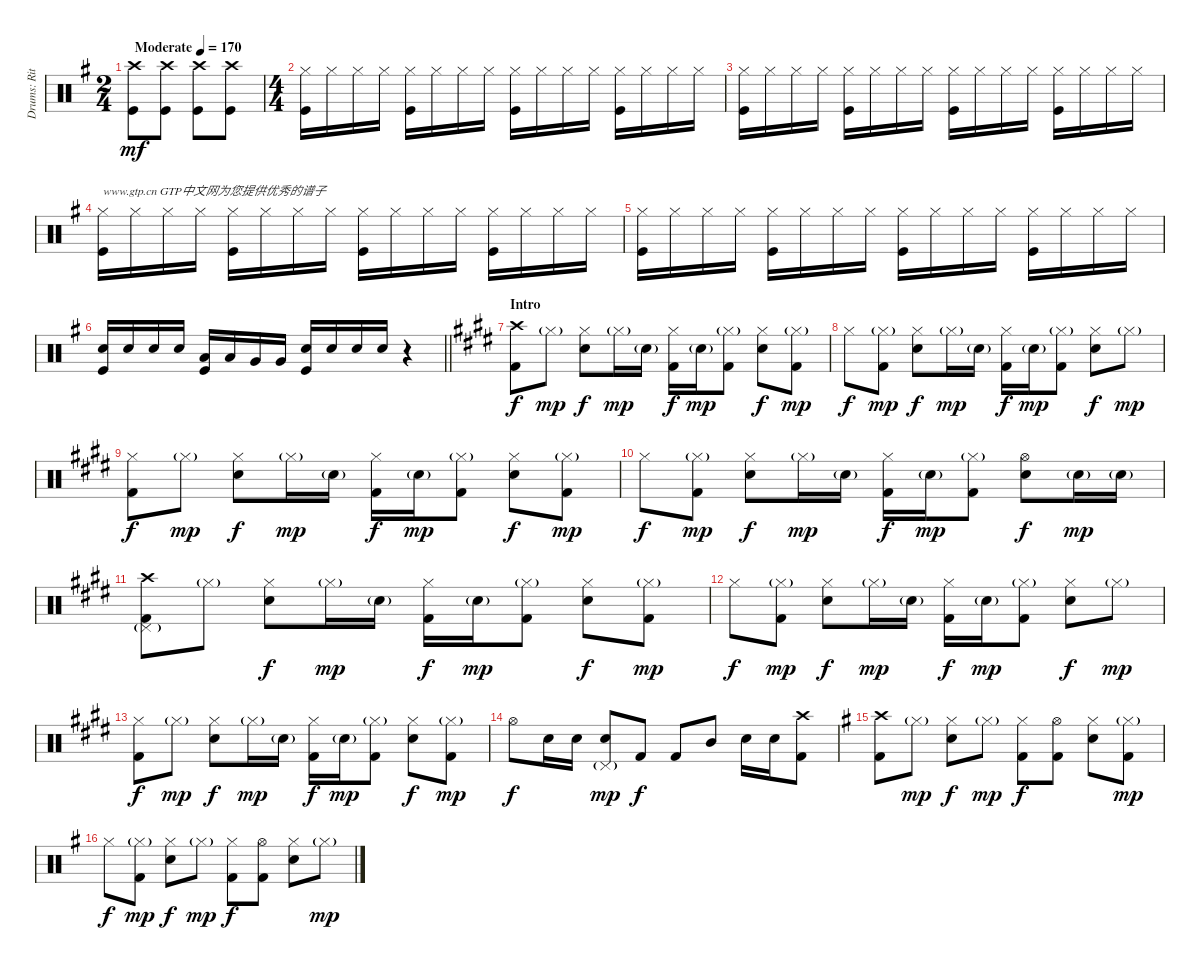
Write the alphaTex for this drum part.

\track ("Drums: Ritsu Tainaka" "Drums: Rit") {instrument percussion}
\staff {score}
\articulation defaults
\ts (2 4)
\tempo (170 "Moderate")
\clef neutral
\ks eminor
("Crash high (hit)" "Kick (hit)").8{dy mf} ("Crash high (hit)" "Kick (hit)").8 ("Crash high (hit)" "Kick (hit)").8 ("Crash high (hit)" "Kick (hit)").8 |
\ts (4 4)
("Hi-Hat (closed)" "Kick (hit)").16 "Hi-Hat (closed)".16 "Hi-Hat (closed)".16 "Hi-Hat (closed)".16 ("Hi-Hat (closed)" "Kick (hit)").16 "Hi-Hat (closed)".16 "Hi-Hat (closed)".16 "Hi-Hat (closed)".16 ("Hi-Hat (closed)" "Kick (hit)").16 "Hi-Hat (closed)".16 "Hi-Hat (closed)".16 "Hi-Hat (closed)".16 ("Hi-Hat (closed)" "Kick (hit)").16 "Hi-Hat (closed)".16 "Hi-Hat (closed)".16 "Hi-Hat (closed)".16 |
("Hi-Hat (closed)" "Kick (hit)").16 "Hi-Hat (closed)".16 "Hi-Hat (closed)".16 "Hi-Hat (closed)".16 ("Hi-Hat (closed)" "Kick (hit)").16 "Hi-Hat (closed)".16 "Hi-Hat (closed)".16 "Hi-Hat (closed)".16 ("Hi-Hat (closed)" "Kick (hit)").16 "Hi-Hat (closed)".16 "Hi-Hat (closed)".16 "Hi-Hat (closed)".16 ("Hi-Hat (closed)" "Kick (hit)").16 "Hi-Hat (closed)".16 "Hi-Hat (closed)".16 "Hi-Hat (closed)".16 |
("Hi-Hat (closed)" "Kick (hit)").16{txt "www.gtp.cn GTP中文网为您提供优秀的谱子"} "Hi-Hat (closed)".16 "Hi-Hat (closed)".16 "Hi-Hat (closed)".16 ("Hi-Hat (closed)" "Kick (hit)").16 "Hi-Hat (closed)".16 "Hi-Hat (closed)".16 "Hi-Hat (closed)".16 ("Hi-Hat (closed)" "Kick (hit)").16 "Hi-Hat (closed)".16 "Hi-Hat (closed)".16 "Hi-Hat (closed)".16 ("Hi-Hat (closed)" "Kick (hit)").16 "Hi-Hat (closed)".16 "Hi-Hat (closed)".16 "Hi-Hat (closed)".16 |
("Hi-Hat (closed)" "Kick (hit)").16 "Hi-Hat (closed)".16 "Hi-Hat (closed)".16 "Hi-Hat (closed)".16 ("Hi-Hat (closed)" "Kick (hit)").16 "Hi-Hat (closed)".16 "Hi-Hat (closed)".16 "Hi-Hat (closed)".16 ("Hi-Hat (closed)" "Kick (hit)").16 "Hi-Hat (closed)".16 "Hi-Hat (closed)".16 "Hi-Hat (closed)".16 ("Hi-Hat (closed)" "Kick (hit)").16 "Hi-Hat (closed)".16 "Hi-Hat (closed)".16 "Hi-Hat (closed)".16 |
\barLineRight lightlight
("Snare (hit) 2" "Kick (hit)").16 "Snare (hit) 2".16 "Snare (hit) 2".16 "Snare (hit) 2".16 ("Low Tom (hit)" "Kick (hit)").16 "Low Tom (hit)".16 "Very Low Tom (hit)".16 "Very Low Tom (hit)".16 ("Snare (hit) 2" "Kick (hit)").16 "Snare (hit) 2".16 "Snare (hit) 2".16 "Snare (hit) 2".16 r.4 |
\section ("" "Intro")
\ks e
("Crash high (hit)" "Kick (hit) 2").8{dy f} "Hi-Hat (closed)"{g}.8{dy mp} ("Hi-Hat (closed)" "Electric Snare (hit)").8{dy f} "Hi-Hat (closed)"{g}.16{dy mp} "Electric Snare (hit)"{g}.16 ("Hi-Hat (closed)" "Kick (hit) 2").16{dy f} "Electric Snare (hit)"{g}.16{dy mp} ("Hi-Hat (closed)"{g} "Kick (hit) 2").8 ("Hi-Hat (closed)" "Electric Snare (hit)").8{dy f} ("Hi-Hat (closed)"{g} "Kick (hit) 2").8{dy mp} |
"Hi-Hat (closed)".8{dy f} ("Hi-Hat (closed)"{g} "Kick (hit) 2").8{dy mp} ("Hi-Hat (closed)" "Electric Snare (hit)").8{dy f} "Hi-Hat (closed)"{g}.16{dy mp} "Electric Snare (hit)"{g}.16 ("Hi-Hat (closed)" "Kick (hit) 2").16{dy f} "Electric Snare (hit)"{g}.16{dy mp} ("Hi-Hat (closed)"{g} "Kick (hit) 2").8 ("Hi-Hat (closed)" "Electric Snare (hit)").8{dy f} "Hi-Hat (closed)"{g}.8{dy mp} |
("Hi-Hat (closed)" "Kick (hit) 2").8{dy f} "Hi-Hat (closed)"{g}.8{dy mp} ("Hi-Hat (closed)" "Electric Snare (hit)").8{dy f} "Hi-Hat (closed)"{g}.16{dy mp} "Electric Snare (hit)"{g}.16 ("Hi-Hat (closed)" "Kick (hit) 2").16{dy f} "Electric Snare (hit)"{g}.16{dy mp} ("Hi-Hat (closed)"{g} "Kick (hit) 2").8 ("Hi-Hat (closed)" "Electric Snare (hit)").8{dy f} ("Hi-Hat (closed)"{g} "Kick (hit) 2").8{dy mp} |
"Hi-Hat (closed)".8{dy f} ("Hi-Hat (closed)"{g} "Kick (hit) 2").8{dy mp} ("Hi-Hat (closed)" "Electric Snare (hit)").8{dy f} "Hi-Hat (closed)"{g}.16{dy mp} "Electric Snare (hit)"{g}.16 ("Hi-Hat (closed)" "Kick (hit) 2").16{dy f} "Electric Snare (hit)"{g}.16{dy mp} ("Hi-Hat (closed)"{g} "Kick (hit) 2").8 ("Hi-Hat (open)" "Electric Snare (hit)").8{dy f} "Electric Snare (hit)"{g}.16{dy mp} "Electric Snare (hit)"{g}.16 |
("Crash high (hit)" "Pedal Hi-Hat (hit)"{g} "Kick (hit) 2").8 "Hi-Hat (closed)"{g}.8 ("Hi-Hat (closed)" "Electric Snare (hit)").8{dy f} "Hi-Hat (closed)"{g}.16{dy mp} "Electric Snare (hit)"{g}.16 ("Hi-Hat (closed)" "Kick (hit) 2").16{dy f} "Electric Snare (hit)"{g}.16{dy mp} ("Hi-Hat (closed)"{g} "Kick (hit) 2").8 ("Hi-Hat (closed)" "Electric Snare (hit)").8{dy f} ("Hi-Hat (closed)"{g} "Kick (hit) 2").8{dy mp} |
"Hi-Hat (closed)".8{dy f} ("Hi-Hat (closed)"{g} "Kick (hit) 2").8{dy mp} ("Hi-Hat (closed)" "Electric Snare (hit)").8{dy f} "Hi-Hat (closed)"{g}.16{dy mp} "Electric Snare (hit)"{g}.16 ("Hi-Hat (closed)" "Kick (hit) 2").16{dy f} "Electric Snare (hit)"{g}.16{dy mp} ("Hi-Hat (closed)"{g} "Kick (hit) 2").8 ("Hi-Hat (closed)" "Electric Snare (hit)").8{dy f} "Hi-Hat (closed)"{g}.8{dy mp} |
("Hi-Hat (closed)" "Kick (hit) 2").8{dy f} "Hi-Hat (closed)"{g}.8{dy mp} ("Hi-Hat (closed)" "Electric Snare (hit)").8{dy f} "Hi-Hat (closed)"{g}.16{dy mp} "Electric Snare (hit)"{g}.16 ("Hi-Hat (closed)" "Kick (hit) 2").16{dy f} "Electric Snare (hit)"{g}.16{dy mp} ("Hi-Hat (closed)"{g} "Kick (hit) 2").8 ("Hi-Hat (closed)" "Electric Snare (hit)").8{dy f} ("Hi-Hat (closed)"{g} "Kick (hit) 2").8{dy mp} |
"Hi-Hat (open)".8{dy f} "Electric Snare (hit)".16 "Electric Snare (hit)".16 ("Pedal Hi-Hat (hit)"{g} "Electric Snare (hit)").8{dy mp} "Kick (hit) 2".8{dy f} "Kick (hit) 2".8 "Mid Tom (hit)".8 "Electric Snare (hit)".16 "Electric Snare (hit)".16 ("Crash high (hit)" "Kick (hit) 2").8 |
\ks g
("Crash high (hit)" "Kick (hit) 2").8 "Hi-Hat (closed)"{g}.8{dy mp} ("Hi-Hat (closed)" "Electric Snare (hit)").8{dy f} "Hi-Hat (closed)"{g}.8{dy mp} ("Hi-Hat (closed)" "Kick (hit) 2").8{dy f} ("Hi-Hat (open)" "Kick (hit) 2").8 ("Hi-Hat (closed)" "Electric Snare (hit)").8 ("Hi-Hat (closed)"{g} "Kick (hit) 2").8{dy mp} |
"Hi-Hat (closed)".8{dy f} ("Hi-Hat (closed)"{g} "Kick (hit) 2").8{dy mp} ("Hi-Hat (closed)" "Electric Snare (hit)").8{dy f} "Hi-Hat (closed)"{g}.8{dy mp} ("Hi-Hat (closed)" "Kick (hit) 2").8{dy f} ("Hi-Hat (open)" "Kick (hit) 2").8 ("Hi-Hat (closed)" "Electric Snare (hit)").8 "Hi-Hat (closed)"{g}.8{dy mp}
